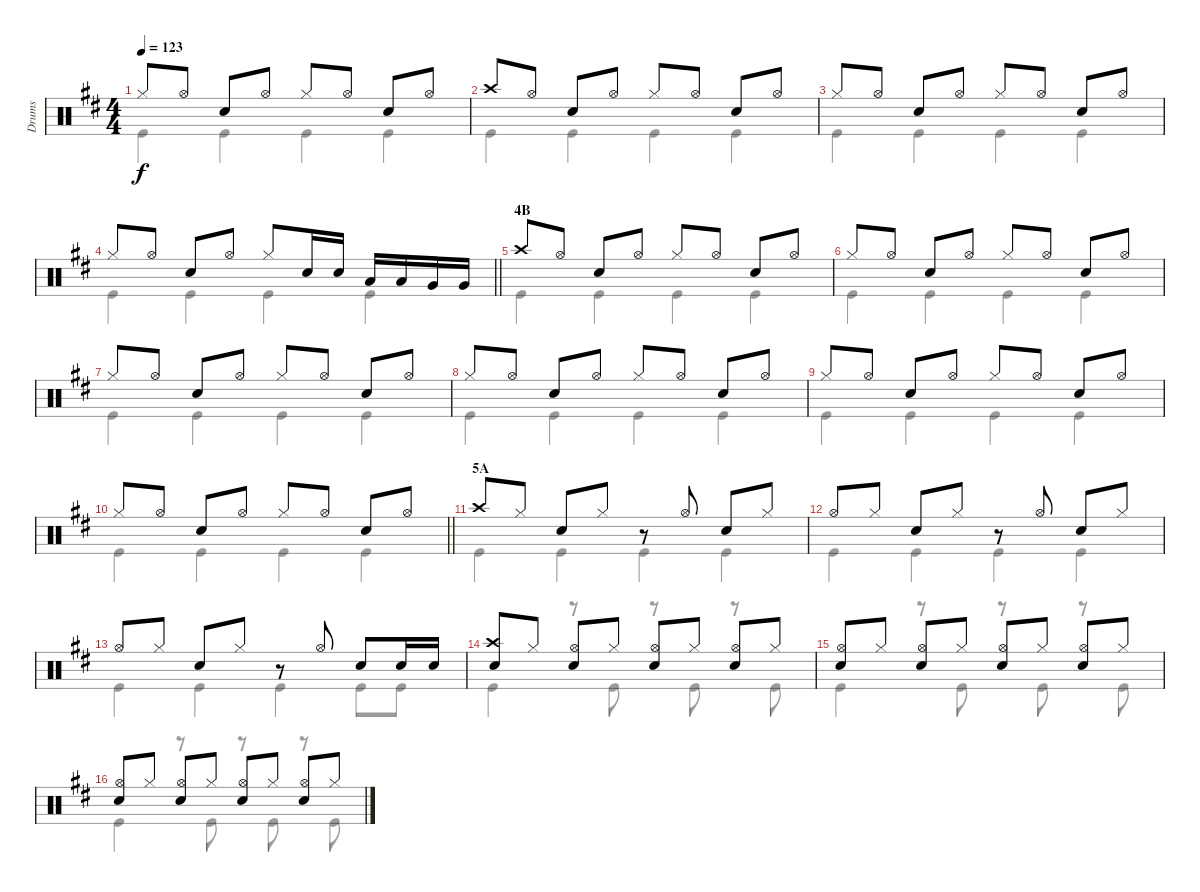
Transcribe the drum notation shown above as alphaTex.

\track ("Drums" "Drums") {instrument percussion}
\staff {score}
\articulation defaults
\voice
\ts (4 4)
\tempo 123
\clef neutral
\ks d "Hi-Hat (closed)".8{dy f} "Hi-Hat (open)".8 "Snare (hit) 2".8 "Hi-Hat (open)".8 "Hi-Hat (closed)".8 "Hi-Hat (open)".8 "Snare (hit) 2".8 "Hi-Hat (open)".8
|
"Crash high (hit)".8 "Hi-Hat (open)".8 "Snare (hit) 2".8 "Hi-Hat (open)".8 "Hi-Hat (closed)".8 "Hi-Hat (open)".8 "Snare (hit) 2".8 "Hi-Hat (open)".8 |
"Hi-Hat (closed)".8 "Hi-Hat (open)".8 "Snare (hit) 2".8 "Hi-Hat (open)".8 "Hi-Hat (closed)".8 "Hi-Hat (open)".8 "Snare (hit) 2".8 "Hi-Hat (open)".8 |
\barLineRight lightlight "Hi-Hat (closed)".8 "Hi-Hat (open)".8 "Snare (hit) 2".8 "Hi-Hat (open)".8 "Hi-Hat (closed)".8 "Snare (hit) 2".16 "Snare (hit) 2".16 "Low Tom (hit)".16 "Low Tom (hit)".16 "Very Low Tom (hit)".16 "Very Low Tom (hit)".16
|
\section ("" "4B")
"Crash high (hit)".8 "Hi-Hat (open)".8 "Snare (hit) 2".8 "Hi-Hat (open)".8 "Hi-Hat (closed)".8 "Hi-Hat (open)".8 "Snare (hit) 2".8 "Hi-Hat (open)".8 |
"Hi-Hat (closed)".8 "Hi-Hat (open)".8 "Snare (hit) 2".8 "Hi-Hat (open)".8 "Hi-Hat (closed)".8 "Hi-Hat (open)".8 "Snare (hit) 2".8 "Hi-Hat (open)".8 |
"Hi-Hat (closed)".8 "Hi-Hat (open)".8 "Snare (hit) 2".8 "Hi-Hat (open)".8 "Hi-Hat (closed)".8 "Hi-Hat (open)".8 "Snare (hit) 2".8 "Hi-Hat (open)".8 |
"Hi-Hat (closed)".8 "Hi-Hat (open)".8 "Snare (hit) 2".8 "Hi-Hat (open)".8 "Hi-Hat (closed)".8 "Hi-Hat (open)".8 "Snare (hit) 2".8 "Hi-Hat (open)".8 |
"Hi-Hat (closed)".8 "Hi-Hat (open)".8 "Snare (hit) 2".8 "Hi-Hat (open)".8 "Hi-Hat (closed)".8 "Hi-Hat (open)".8 "Snare (hit) 2".8 "Hi-Hat (open)".8 |
\barLineRight lightlight "Hi-Hat (closed)".8 "Hi-Hat (open)".8 "Snare (hit) 2".8 "Hi-Hat (open)".8 "Hi-Hat (closed)".8 "Hi-Hat (open)".8 "Snare (hit) 2".8 "Hi-Hat (open)".8
|
\section ("" "5A")
"Crash high (hit)".8 "Hi-Hat (closed)".8 "Snare (hit) 2".8 "Hi-Hat (closed)".8 r.8 "Hi-Hat (open)".8 "Snare (hit) 2".8 "Hi-Hat (closed)".8 |
"Hi-Hat (open)".8 "Hi-Hat (closed)".8 "Snare (hit) 2".8 "Hi-Hat (closed)".8 r.8 "Hi-Hat (open)".8 "Snare (hit) 2".8 "Hi-Hat (closed)".8 |
"Hi-Hat (open)".8 "Hi-Hat (closed)".8 "Snare (hit) 2".8 "Hi-Hat (closed)".8 r.8 "Hi-Hat (open)".8 "Snare (hit) 2".8 "Snare (hit) 2".16 "Snare (hit) 2".16 |
("Crash high (hit)" "Snare (hit) 2").8 "Hi-Hat (closed)".8 ("Hi-Hat (open)" "Snare (hit) 2").8 "Hi-Hat (closed)".8 ("Hi-Hat (open)" "Snare (hit) 2").8 "Hi-Hat (closed)".8 ("Hi-Hat (open)" "Snare (hit) 2").8 "Hi-Hat (closed)".8 |
("Hi-Hat (open)" "Snare (hit) 2").8 "Hi-Hat (closed)".8 ("Hi-Hat (open)" "Snare (hit) 2").8 "Hi-Hat (closed)".8 ("Hi-Hat (open)" "Snare (hit) 2").8 "Hi-Hat (closed)".8 ("Hi-Hat (open)" "Snare (hit) 2").8 "Hi-Hat (closed)".8 |
("Hi-Hat (open)" "Snare (hit) 2").8 "Hi-Hat (closed)".8 ("Hi-Hat (open)" "Snare (hit) 2").8 "Hi-Hat (closed)".8 ("Hi-Hat (open)" "Snare (hit) 2").8 "Hi-Hat (closed)".8 ("Hi-Hat (open)" "Snare (hit) 2").8 "Hi-Hat (closed)".8
\voice
\clef neutral
\ottava regular
\simile none
\ks d "Kick (hit)".4{dy f} "Kick (hit)".4 "Kick (hit)".4 "Kick (hit)".4
|
"Kick (hit)".4 "Kick (hit)".4 "Kick (hit)".4 "Kick (hit)".4 |
"Kick (hit)".4 "Kick (hit)".4 "Kick (hit)".4 "Kick (hit)".4 |
\barLineRight lightlight "Kick (hit)".4 "Kick (hit)".4 "Kick (hit)".4 "Kick (hit)".4
|
"Kick (hit)".4 "Kick (hit)".4 "Kick (hit)".4 "Kick (hit)".4 |
"Kick (hit)".4 "Kick (hit)".4 "Kick (hit)".4 "Kick (hit)".4 |
"Kick (hit)".4 "Kick (hit)".4 "Kick (hit)".4 "Kick (hit)".4 |
"Kick (hit)".4 "Kick (hit)".4 "Kick (hit)".4 "Kick (hit)".4 |
"Kick (hit)".4 "Kick (hit)".4 "Kick (hit)".4 "Kick (hit)".4 |
\barLineRight lightlight "Kick (hit)".4 "Kick (hit)".4 "Kick (hit)".4 "Kick (hit)".4
|
"Kick (hit)".4 "Kick (hit)".4 "Kick (hit)".4 "Kick (hit)".4 |
"Kick (hit)".4 "Kick (hit)".4 "Kick (hit)".4 "Kick (hit)".4 |
"Kick (hit)".4 "Kick (hit)".4 "Kick (hit)".4 "Kick (hit)".8 "Kick (hit)".8 |
"Kick (hit)".4 r.8 "Kick (hit)".8 r.8 "Kick (hit)".8 r.8 "Kick (hit)".8 |
"Kick (hit)".4 r.8 "Kick (hit)".8 r.8 "Kick (hit)".8 r.8 "Kick (hit)".8 |
"Kick (hit)".4 r.8 "Kick (hit)".8 r.8 "Kick (hit)".8 r.8 "Kick (hit)".8
